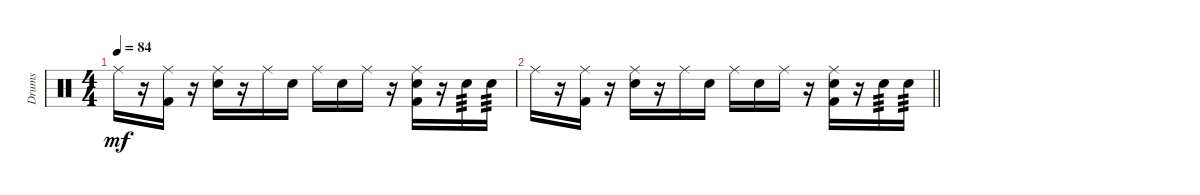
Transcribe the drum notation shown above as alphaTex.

\track ("Drums" "Drums") {instrument percussion}
\staff {score}
\articulation defaults
\ts (4 4)
\tempo 84
\clef neutral
\ks c "Ride (middle)".16{dy mf}
r.16 ("Ride (middle)" "Kick (hit) 2").16 r.16 ("Ride (middle)" "Electric Snare (hit)").16 r.16 "Ride (middle)".16 "Electric Snare (hit)".16 "Ride (middle)".16 "Electric Snare (hit)".16 "Ride (middle)".16 r.16 ("Ride (middle)" "Electric Snare (hit)" "Kick (hit) 2").16 r.16 "Snare (hit) 2".16{tp 3} "Snare (hit) 2".16{tp 3} |
\barLineRight lightlight "Ride (middle)".16
r.16 ("Ride (middle)" "Kick (hit) 2").16 r.16 ("Ride (middle)" "Electric Snare (hit)").16 r.16 "Ride (middle)".16 "Electric Snare (hit)".16 "Ride (middle)".16 "Electric Snare (hit)".16 "Ride (middle)".16 r.16 ("Ride (middle)" "Electric Snare (hit)" "Kick (hit) 2").16 r.16 "Snare (hit) 2".16{tp 3} "Snare (hit) 2".16{tp 3}
